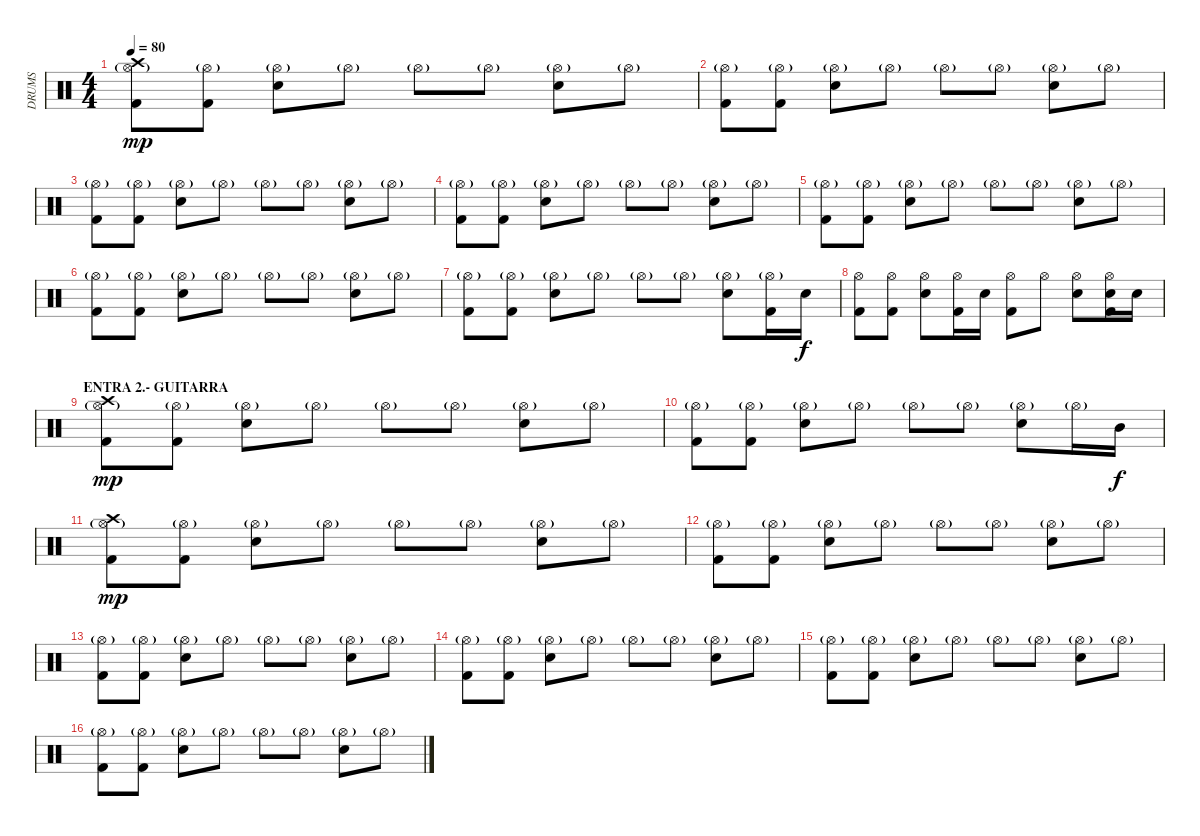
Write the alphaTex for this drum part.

\track ("DRUMS" "DRUMS") {instrument percussion}
\staff {score}
\articulation defaults
\ts (4 4)
\tempo 80
\clef neutral
\ks c
("Crash high (hit)" "Hi-Hat (open)"{g} "Kick (hit) 2").8{dy mp} ("Hi-Hat (open)"{g} "Kick (hit) 2").8 ("Hi-Hat (open)"{g} "Snare (hit) 2").8 "Hi-Hat (open)"{g}.8 "Hi-Hat (open)"{g}.8 "Hi-Hat (open)"{g}.8 ("Hi-Hat (open)"{g} "Snare (hit) 2").8 "Hi-Hat (open)"{g}.8 |
("Hi-Hat (open)"{g} "Kick (hit) 2").8 ("Hi-Hat (open)"{g} "Kick (hit) 2").8 ("Hi-Hat (open)"{g} "Snare (hit) 2").8 "Hi-Hat (open)"{g}.8 "Hi-Hat (open)"{g}.8 "Hi-Hat (open)"{g}.8 ("Hi-Hat (open)"{g} "Snare (hit) 2").8 "Hi-Hat (open)"{g}.8 |
("Hi-Hat (open)"{g} "Kick (hit) 2").8 ("Hi-Hat (open)"{g} "Kick (hit) 2").8 ("Hi-Hat (open)"{g} "Snare (hit) 2").8 "Hi-Hat (open)"{g}.8 "Hi-Hat (open)"{g}.8 "Hi-Hat (open)"{g}.8 ("Hi-Hat (open)"{g} "Snare (hit) 2").8 "Hi-Hat (open)"{g}.8 |
("Hi-Hat (open)"{g} "Kick (hit) 2").8 ("Hi-Hat (open)"{g} "Kick (hit) 2").8 ("Hi-Hat (open)"{g} "Snare (hit) 2").8 "Hi-Hat (open)"{g}.8 "Hi-Hat (open)"{g}.8 "Hi-Hat (open)"{g}.8 ("Hi-Hat (open)"{g} "Snare (hit) 2").8 "Hi-Hat (open)"{g}.8 |
("Hi-Hat (open)"{g} "Kick (hit) 2").8 ("Hi-Hat (open)"{g} "Kick (hit) 2").8 ("Hi-Hat (open)"{g} "Snare (hit) 2").8 "Hi-Hat (open)"{g}.8 "Hi-Hat (open)"{g}.8 "Hi-Hat (open)"{g}.8 ("Hi-Hat (open)"{g} "Snare (hit) 2").8 "Hi-Hat (open)"{g}.8 |
("Hi-Hat (open)"{g} "Kick (hit) 2").8 ("Hi-Hat (open)"{g} "Kick (hit) 2").8 ("Hi-Hat (open)"{g} "Snare (hit) 2").8 "Hi-Hat (open)"{g}.8 "Hi-Hat (open)"{g}.8 "Hi-Hat (open)"{g}.8 ("Hi-Hat (open)"{g} "Snare (hit) 2").8 "Hi-Hat (open)"{g}.8 |
("Hi-Hat (open)"{g} "Kick (hit) 2").8 ("Hi-Hat (open)"{g} "Kick (hit) 2").8 ("Hi-Hat (open)"{g} "Snare (hit) 2").8 "Hi-Hat (open)"{g}.8 "Hi-Hat (open)"{g}.8 "Hi-Hat (open)"{g}.8 ("Hi-Hat (open)"{g} "Snare (hit) 2").8 ("Hi-Hat (open)"{g} "Kick (hit) 2").16 "Snare (hit) 2".16{dy f} |
("Hi-Hat (open)" "Kick (hit) 2").8 ("Hi-Hat (open)" "Kick (hit) 2").8 ("Hi-Hat (open)" "Snare (hit) 2").8 ("Hi-Hat (open)" "Kick (hit) 2").16 "Snare (hit) 2".16 ("Hi-Hat (open)" "Kick (hit) 2").8 "Hi-Hat (open)".8 ("Hi-Hat (open)" "Snare (hit) 2").8 ("Hi-Hat (open)" "Snare (hit) 2" "Kick (hit) 2").16 "Snare (hit) 2".16 |
\section ("" "ENTRA 2.- GUITARRA")
("Crash high (hit)" "Hi-Hat (open)"{g} "Kick (hit) 2").8{dy mp} ("Hi-Hat (open)"{g} "Kick (hit) 2").8 ("Hi-Hat (open)"{g} "Snare (hit) 2").8 "Hi-Hat (open)"{g}.8 "Hi-Hat (open)"{g}.8 "Hi-Hat (open)"{g}.8 ("Hi-Hat (open)"{g} "Snare (hit) 2").8 "Hi-Hat (open)"{g}.8 |
("Hi-Hat (open)"{g} "Kick (hit) 2").8 ("Hi-Hat (open)"{g} "Kick (hit) 2").8 ("Hi-Hat (open)"{g} "Snare (hit) 2").8 "Hi-Hat (open)"{g}.8 "Hi-Hat (open)"{g}.8 "Hi-Hat (open)"{g}.8 ("Hi-Hat (open)"{g} "Snare (hit) 2").8 "Hi-Hat (open)"{g}.16 "Mid Tom (hit)".16{dy f} |
("Crash high (hit)" "Hi-Hat (open)"{g} "Kick (hit) 2").8{dy mp} ("Hi-Hat (open)"{g} "Kick (hit) 2").8 ("Hi-Hat (open)"{g} "Snare (hit) 2").8 "Hi-Hat (open)"{g}.8 "Hi-Hat (open)"{g}.8 "Hi-Hat (open)"{g}.8 ("Hi-Hat (open)"{g} "Snare (hit) 2").8 "Hi-Hat (open)"{g}.8 |
("Hi-Hat (open)"{g} "Kick (hit) 2").8 ("Hi-Hat (open)"{g} "Kick (hit) 2").8 ("Hi-Hat (open)"{g} "Snare (hit) 2").8 "Hi-Hat (open)"{g}.8 "Hi-Hat (open)"{g}.8 "Hi-Hat (open)"{g}.8 ("Hi-Hat (open)"{g} "Snare (hit) 2").8 "Hi-Hat (open)"{g}.8 |
("Hi-Hat (open)"{g} "Kick (hit) 2").8 ("Hi-Hat (open)"{g} "Kick (hit) 2").8 ("Hi-Hat (open)"{g} "Snare (hit) 2").8 "Hi-Hat (open)"{g}.8 "Hi-Hat (open)"{g}.8 "Hi-Hat (open)"{g}.8 ("Hi-Hat (open)"{g} "Snare (hit) 2").8 "Hi-Hat (open)"{g}.8 |
("Hi-Hat (open)"{g} "Kick (hit) 2").8 ("Hi-Hat (open)"{g} "Kick (hit) 2").8 ("Hi-Hat (open)"{g} "Snare (hit) 2").8 "Hi-Hat (open)"{g}.8 "Hi-Hat (open)"{g}.8 "Hi-Hat (open)"{g}.8 ("Hi-Hat (open)"{g} "Snare (hit) 2").8 "Hi-Hat (open)"{g}.8 |
("Hi-Hat (open)"{g} "Kick (hit) 2").8 ("Hi-Hat (open)"{g} "Kick (hit) 2").8 ("Hi-Hat (open)"{g} "Snare (hit) 2").8 "Hi-Hat (open)"{g}.8 "Hi-Hat (open)"{g}.8 "Hi-Hat (open)"{g}.8 ("Hi-Hat (open)"{g} "Snare (hit) 2").8 "Hi-Hat (open)"{g}.8 |
("Hi-Hat (open)"{g} "Kick (hit) 2").8 ("Hi-Hat (open)"{g} "Kick (hit) 2").8 ("Hi-Hat (open)"{g} "Snare (hit) 2").8 "Hi-Hat (open)"{g}.8 "Hi-Hat (open)"{g}.8 "Hi-Hat (open)"{g}.8 ("Hi-Hat (open)"{g} "Snare (hit) 2").8 "Hi-Hat (open)"{g}.8
